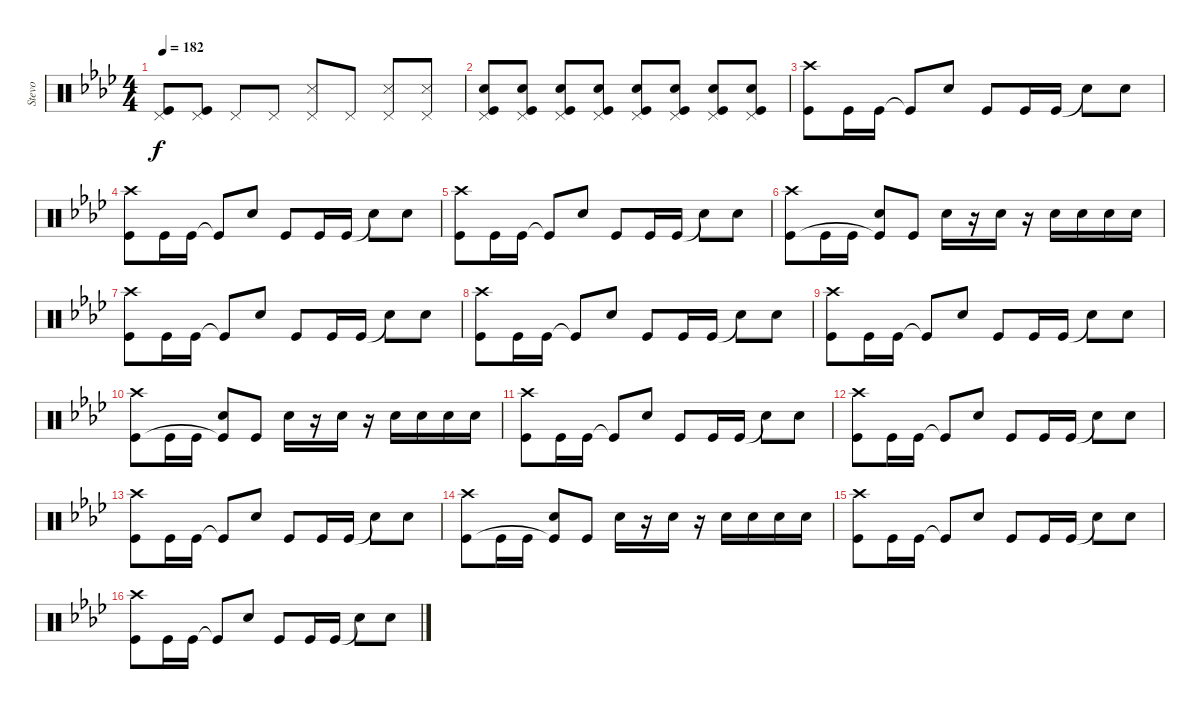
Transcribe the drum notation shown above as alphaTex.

\track ("Stevo" "Stevo") {instrument percussion}
\staff {score}
\articulation defaults
\ts (4 4)
\tempo 182
\clef neutral
\ks ab
("Pedal Hi-Hat (hit)" "Kick (hit)").8{dy f} ("Pedal Hi-Hat (hit)" "Kick (hit)").8 "Pedal Hi-Hat (hit)".8 "Pedal Hi-Hat (hit)".8 ("Pedal Hi-Hat (hit)" "Snare (side stick) 3").8 "Pedal Hi-Hat (hit)".8 ("Pedal Hi-Hat (hit)" "Snare (side stick) 3").8 ("Pedal Hi-Hat (hit)" "Snare (side stick) 3").8 |
("Pedal Hi-Hat (hit)" "Snare (hit) 2" "Kick (hit)").8 ("Pedal Hi-Hat (hit)" "Snare (hit) 2" "Kick (hit)").8 ("Pedal Hi-Hat (hit)" "Snare (hit) 2" "Kick (hit)").8 ("Pedal Hi-Hat (hit)" "Snare (hit) 2" "Kick (hit)").8 ("Pedal Hi-Hat (hit)" "Snare (hit) 2" "Kick (hit)").8 ("Pedal Hi-Hat (hit)" "Snare (hit) 2" "Kick (hit)").8 ("Pedal Hi-Hat (hit)" "Snare (hit) 2" "Kick (hit)").8 ("Pedal Hi-Hat (hit)" "Snare (hit) 2" "Kick (hit)").8 |
("Crash high (hit)" "Kick (hit)").8 "Kick (hit)".16 "Kick (hit)".16 "Kick (hit)"{t}.8 "Snare (hit) 2".8 "Kick (hit)".8 "Kick (hit)".16 "Kick (hit)".16 "Snare (hit)"{t}.8 "Snare (hit) 2".8 |
("Crash high (hit)" "Kick (hit)").8 "Kick (hit)".16 "Kick (hit)".16 "Kick (hit)"{t}.8 "Snare (hit) 2".8 "Kick (hit)".8 "Kick (hit)".16 "Kick (hit)".16 "Snare (hit)"{t}.8 "Snare (hit) 2".8 |
("Crash high (hit)" "Kick (hit)").8 "Kick (hit)".16 "Kick (hit)".16 "Kick (hit)"{t}.8 "Snare (hit) 2".8 "Kick (hit)".8 "Kick (hit)".16 "Kick (hit)".16 "Snare (hit)"{t}.8 "Snare (hit) 2".8 |
("Crash high (hit)" "Kick (hit)").8 "Kick (hit)".16 "Kick (hit)".16 ("Snare (hit) 2" "Kick (hit)"{t}).8 "Kick (hit)".8 "Snare (hit) 2".16 r.16 "Snare (hit) 2".16 r.16 "Snare (hit) 2".16 "Snare (hit) 2".16 "Snare (hit) 2".16 "Snare (hit) 2".16 |
("Crash high (hit)" "Kick (hit)").8 "Kick (hit)".16 "Kick (hit)".16 "Kick (hit)"{t}.8 "Snare (hit) 2".8 "Kick (hit)".8 "Kick (hit)".16 "Kick (hit)".16 "Snare (hit)"{t}.8 "Snare (hit) 2".8 |
("Crash high (hit)" "Kick (hit)").8 "Kick (hit)".16 "Kick (hit)".16 "Kick (hit)"{t}.8 "Snare (hit) 2".8 "Kick (hit)".8 "Kick (hit)".16 "Kick (hit)".16 "Snare (hit)"{t}.8 "Snare (hit) 2".8 |
("Crash high (hit)" "Kick (hit)").8 "Kick (hit)".16 "Kick (hit)".16 "Kick (hit)"{t}.8 "Snare (hit) 2".8 "Kick (hit)".8 "Kick (hit)".16 "Kick (hit)".16 "Snare (hit)"{t}.8 "Snare (hit) 2".8 |
("Crash high (hit)" "Kick (hit)").8 "Kick (hit)".16 "Kick (hit)".16 ("Snare (hit) 2" "Kick (hit)"{t}).8 "Kick (hit)".8 "Snare (hit) 2".16 r.16 "Snare (hit) 2".16 r.16 "Snare (hit) 2".16 "Snare (hit) 2".16 "Snare (hit) 2".16 "Snare (hit) 2".16 |
("Crash high (hit)" "Kick (hit)").8 "Kick (hit)".16 "Kick (hit)".16 "Kick (hit)"{t}.8 "Snare (hit) 2".8 "Kick (hit)".8 "Kick (hit)".16 "Kick (hit)".16 "Snare (hit)"{t}.8 "Snare (hit) 2".8 |
("Crash high (hit)" "Kick (hit)").8 "Kick (hit)".16 "Kick (hit)".16 "Kick (hit)"{t}.8 "Snare (hit) 2".8 "Kick (hit)".8 "Kick (hit)".16 "Kick (hit)".16 "Snare (hit)"{t}.8 "Snare (hit) 2".8 |
("Crash high (hit)" "Kick (hit)").8 "Kick (hit)".16 "Kick (hit)".16 "Kick (hit)"{t}.8 "Snare (hit) 2".8 "Kick (hit)".8 "Kick (hit)".16 "Kick (hit)".16 "Snare (hit)"{t}.8 "Snare (hit) 2".8 |
("Crash high (hit)" "Kick (hit)").8 "Kick (hit)".16 "Kick (hit)".16 ("Snare (hit) 2" "Kick (hit)"{t}).8 "Kick (hit)".8 "Snare (hit) 2".16 r.16 "Snare (hit) 2".16 r.16 "Snare (hit) 2".16 "Snare (hit) 2".16 "Snare (hit) 2".16 "Snare (hit) 2".16 |
("Crash high (hit)" "Kick (hit)").8 "Kick (hit)".16 "Kick (hit)".16 "Kick (hit)"{t}.8 "Snare (hit) 2".8 "Kick (hit)".8 "Kick (hit)".16 "Kick (hit)".16 "Snare (hit)"{t}.8 "Snare (hit) 2".8 |
("Crash high (hit)" "Kick (hit)").8 "Kick (hit)".16 "Kick (hit)".16 "Kick (hit)"{t}.8 "Snare (hit) 2".8 "Kick (hit)".8 "Kick (hit)".16 "Kick (hit)".16 "Snare (hit)"{t}.8 "Snare (hit) 2".8
